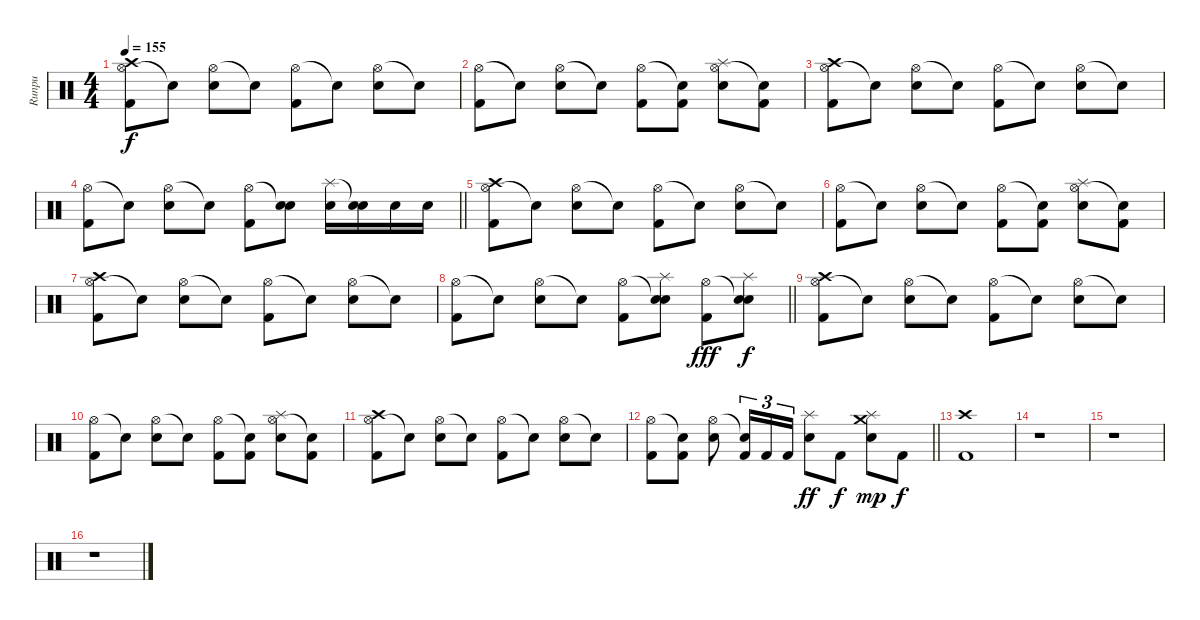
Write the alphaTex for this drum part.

\track ("Runpu" "Runpu") {instrument percussion}
\staff {score}
\articulation defaults
\ts (4 4)
\tempo 155
\clef neutral
\ks c
("Hi-Hat (open)" "Crash high (hit)" "Kick (hit) 2").8{dy f} "Snare (hit)"{t}.8 ("Hi-Hat (open)" "Snare (hit) 2").8 "Snare (hit)"{t}.8 ("Hi-Hat (open)" "Kick (hit) 2").8 "Snare (hit)"{t}.8 ("Hi-Hat (open)" "Snare (hit) 2").8 "Snare (hit)"{t}.8 |
("Hi-Hat (open)" "Kick (hit) 2").8 "Snare (hit)"{t}.8 ("Hi-Hat (open)" "Snare (hit) 2").8 "Snare (hit)"{t}.8 ("Hi-Hat (open)" "Kick (hit) 2").8 ("Snare (hit)"{t} "Kick (hit) 2").8 ("Hi-Hat (open)" "Splash (hit)" "Snare (hit) 2").8 ("Snare (hit)"{t} "Kick (hit) 2").8 |
("Hi-Hat (open)" "Crash high (hit)" "Kick (hit) 2").8 "Snare (hit)"{t}.8 ("Hi-Hat (open)" "Snare (hit) 2").8 "Snare (hit)"{t}.8 ("Hi-Hat (open)" "Kick (hit) 2").8 "Snare (hit)"{t}.8 ("Hi-Hat (open)" "Snare (hit) 2").8 "Snare (hit)"{t}.8 |
\barLineRight lightlight
("Hi-Hat (open)" "Kick (hit) 2").8 "Snare (hit)"{t}.8 ("Hi-Hat (open)" "Snare (hit) 2").8 "Snare (hit)"{t}.8 ("Hi-Hat (open)" "Kick (hit) 2").8 ("Snare (hit)"{t} "Snare (hit) 2").8 ("Splash (hit)" "Snare (hit) 2").16 ("Snare (hit)"{t} "Snare (hit) 2").16 "Snare (hit) 2".16 "Snare (hit) 2".16 |
("Hi-Hat (open)" "Crash high (hit)" "Kick (hit) 2").8 "Snare (hit)"{t}.8 ("Hi-Hat (open)" "Snare (hit) 2").8 "Snare (hit)"{t}.8 ("Hi-Hat (open)" "Kick (hit) 2").8 "Snare (hit)"{t}.8 ("Hi-Hat (open)" "Snare (hit) 2").8 "Snare (hit)"{t}.8 |
("Hi-Hat (open)" "Kick (hit) 2").8 "Snare (hit)"{t}.8 ("Hi-Hat (open)" "Snare (hit) 2").8 "Snare (hit)"{t}.8 ("Hi-Hat (open)" "Kick (hit) 2").8 ("Snare (hit)"{t} "Kick (hit) 2").8 ("Hi-Hat (open)" "Splash (hit)" "Snare (hit) 2").8 ("Snare (hit)"{t} "Kick (hit) 2").8 |
("Hi-Hat (open)" "Crash high (hit)" "Kick (hit) 2").8 "Snare (hit)"{t}.8 ("Hi-Hat (open)" "Snare (hit) 2").8 "Snare (hit)"{t}.8 ("Hi-Hat (open)" "Kick (hit) 2").8 "Snare (hit)"{t}.8 ("Hi-Hat (open)" "Snare (hit) 2").8 "Snare (hit)"{t}.8 |
\barLineRight lightlight
("Hi-Hat (open)" "Kick (hit) 2").8 "Snare (hit)"{t}.8 ("Hi-Hat (open)" "Snare (hit) 2").8 "Snare (hit)"{t}.8 ("Hi-Hat (open)" "Kick (hit) 2").8 ("Snare (hit)"{t} "Splash (hit)" "Snare (hit) 2").8 ("Hi-Hat (open)" "Kick (hit) 2").8{dy fff} ("Snare (hit)"{t} "Splash (hit)" "Snare (hit) 2").8{dy f} |
("Hi-Hat (open)" "Crash high (hit)" "Kick (hit) 2").8 "Snare (hit)"{t}.8 ("Hi-Hat (open)" "Snare (hit) 2").8 "Snare (hit)"{t}.8 ("Hi-Hat (open)" "Kick (hit) 2").8 "Snare (hit)"{t}.8 ("Hi-Hat (open)" "Snare (hit) 2").8 "Snare (hit)"{t}.8 |
("Hi-Hat (open)" "Kick (hit) 2").8 "Snare (hit)"{t}.8 ("Hi-Hat (open)" "Snare (hit) 2").8 "Snare (hit)"{t}.8 ("Hi-Hat (open)" "Kick (hit) 2").8 ("Snare (hit)"{t} "Kick (hit) 2").8 ("Hi-Hat (open)" "Splash (hit)" "Snare (hit) 2").8 ("Snare (hit)"{t} "Kick (hit) 2").8 |
("Hi-Hat (open)" "Crash high (hit)" "Kick (hit) 2").8 "Snare (hit)"{t}.8 ("Hi-Hat (open)" "Snare (hit) 2").8 "Snare (hit)"{t}.8 ("Hi-Hat (open)" "Kick (hit) 2").8 "Snare (hit)"{t}.8 ("Hi-Hat (open)" "Snare (hit) 2").8 "Snare (hit)"{t}.8 |
\barLineRight lightlight
("Hi-Hat (open)" "Kick (hit) 2").8 ("Snare (hit)"{t} "Kick (hit) 2").8 ("Hi-Hat (open)" "Snare (hit) 2").8 ("Snare (hit)"{t} "Kick (hit) 2").16{tu (3 2)} "Kick (hit) 2".16{tu (3 2)} "Kick (hit) 2".16{tu (3 2)} ("Splash (hit)" "Snare (hit) 2").8{dy ff} "Kick (hit) 2".8{dy f} ("Crash medium (hit)" "Splash (hit)" "Snare (hit) 2").8{dy mp} "Kick (hit) 2".8{dy f} |
("Crash high (hit)" "Kick (hit) 2").1 |
r.1 |
r.1 |
r.1
